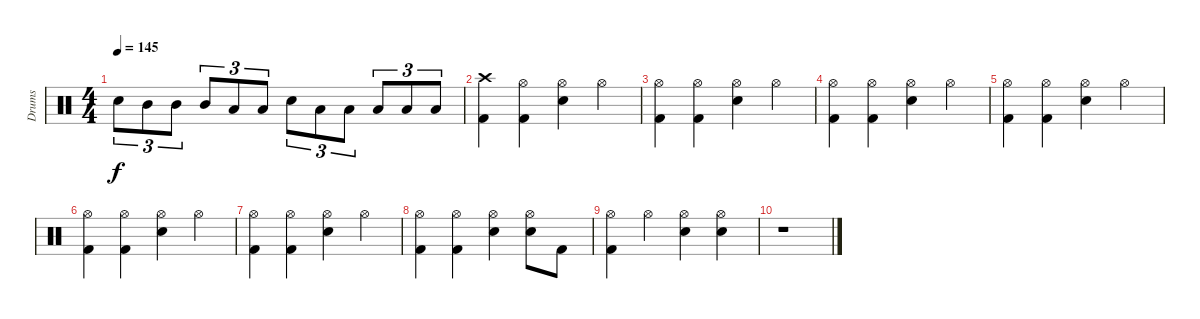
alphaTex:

\track ("Drums" "Drums") {instrument percussion}
\staff {score}
\articulation defaults
\ts (4 4)
\tempo 145
\clef neutral
\ks c "Snare (hit) 2".8{tu (3 2) dy f} "Mid Tom (hit)".8{tu (3 2)} "Mid Tom (hit)".8{tu (3 2)} "Mid Tom (hit)".8{tu (3 2)} "Low Tom (hit)".8{tu (3 2)} "Low Tom (hit)".8{tu (3 2)} "Snare (hit) 2".8{tu (3 2)} "Low Tom (hit)".8{tu (3 2)} "Low Tom (hit)".8{tu (3 2)} "Low Tom (hit)".8{tu (3 2)} "Low Floor Tom (hit)".8{tu (3 2)} "Low Floor Tom (hit)".8{tu (3 2)}
|
("Crash high (hit)" "Kick (hit) 2").4 ("Kick (hit) 2" "Hi-Hat (open)").4 ("Snare (hit) 2" "Hi-Hat (open)").4 "Hi-Hat (open)".4 |
("Kick (hit) 2" "Hi-Hat (open)").4 ("Kick (hit) 2" "Hi-Hat (open)").4 ("Snare (hit) 2" "Hi-Hat (open)").4 "Hi-Hat (open)".4 |
("Kick (hit) 2" "Hi-Hat (open)").4 ("Kick (hit) 2" "Hi-Hat (open)").4 ("Snare (hit) 2" "Hi-Hat (open)").4 "Hi-Hat (open)".4 |
("Kick (hit) 2" "Hi-Hat (open)").4 ("Kick (hit) 2" "Hi-Hat (open)").4 ("Snare (hit) 2" "Hi-Hat (open)").4 "Hi-Hat (open)".4 |
("Kick (hit) 2" "Hi-Hat (open)").4 ("Kick (hit) 2" "Hi-Hat (open)").4 ("Snare (hit) 2" "Hi-Hat (open)").4 "Hi-Hat (open)".4 |
("Kick (hit) 2" "Hi-Hat (open)").4 ("Kick (hit) 2" "Hi-Hat (open)").4 ("Snare (hit) 2" "Hi-Hat (open)").4 "Hi-Hat (open)".4 |
("Kick (hit) 2" "Hi-Hat (open)").4 ("Kick (hit) 2" "Hi-Hat (open)").4 ("Snare (hit) 2" "Hi-Hat (open)").4 ("Snare (hit) 2" "Hi-Hat (open)").8 "Kick (hit) 2".8 |
("Kick (hit) 2" "Hi-Hat (open)").4 "Hi-Hat (open)".4 ("Snare (hit) 2" "Hi-Hat (open)").4 ("Snare (hit) 2" "Hi-Hat (open)").4 |
r.1
